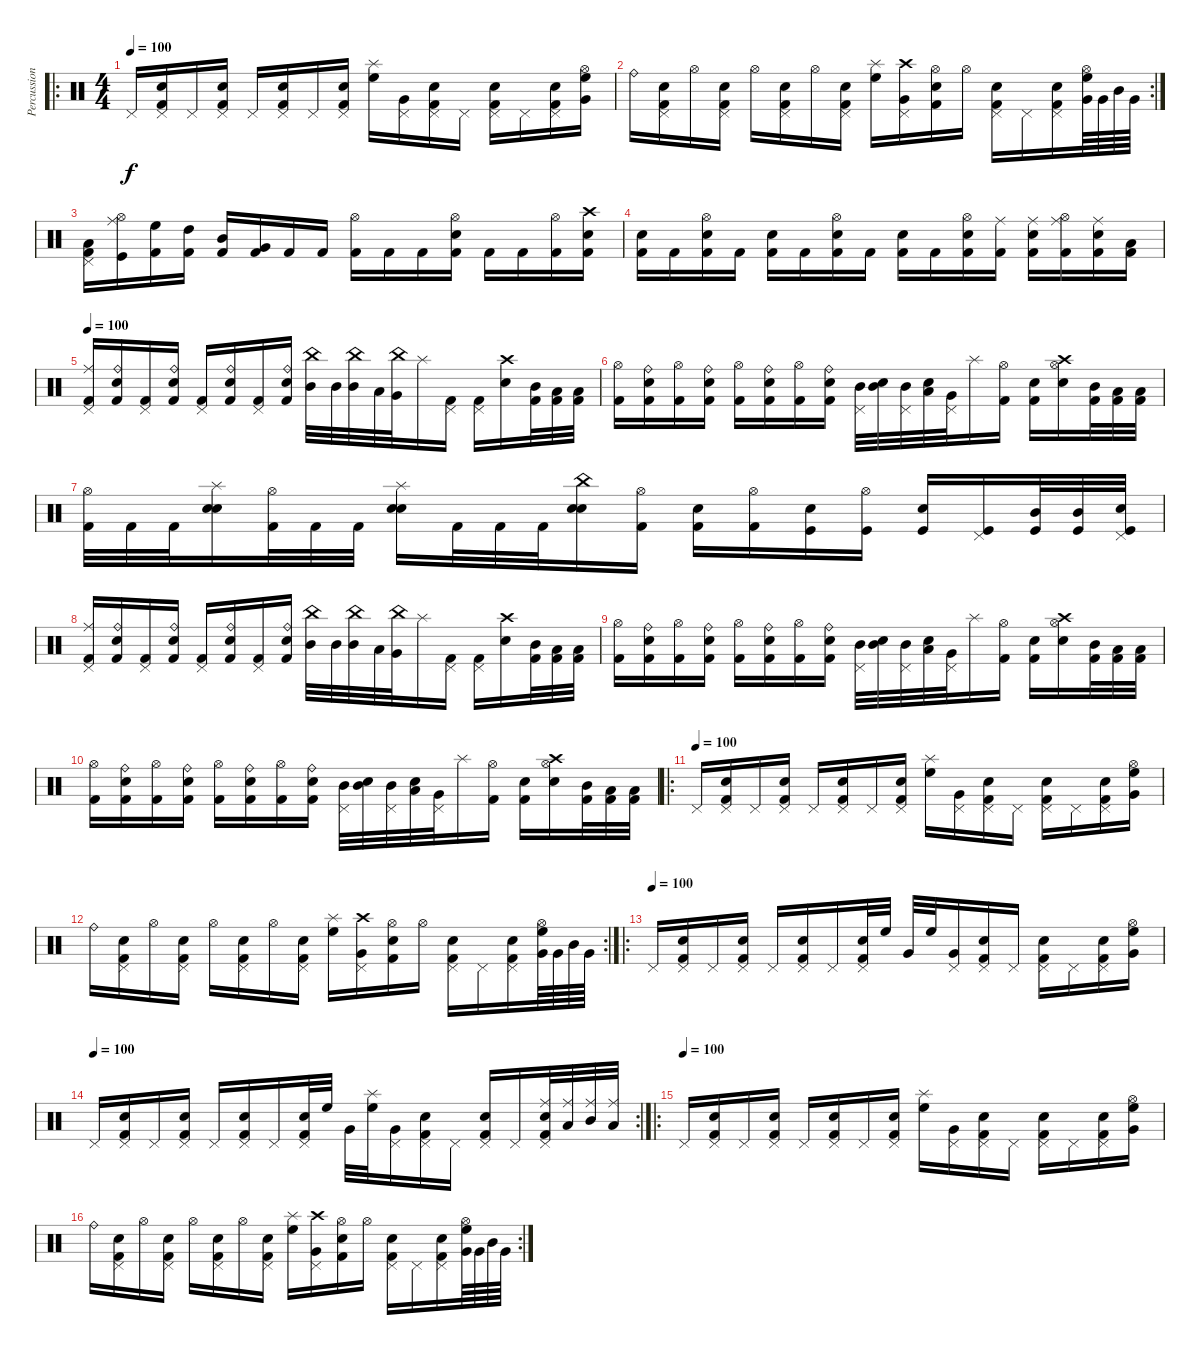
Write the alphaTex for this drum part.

\track ("Percussion" "Percussion") {instrument percussion}
\staff {score}
\articulation defaults
\ro
\ts (4 4)
\tempo 100
\clef neutral
\ks c "Pedal Hi-Hat (hit)".16{dy f}
("Electric Snare (hit)" "Pedal Hi-Hat (hit)" "Kick (hit) 2").16 "Pedal Hi-Hat (hit)".16 ("Snare (hit) 2" "Pedal Hi-Hat (hit)" "Kick (hit) 2").16 "Pedal Hi-Hat (hit)".16 ("Electric Snare (hit)" "Pedal Hi-Hat (hit)" "Kick (hit) 2").16 "Pedal Hi-Hat (hit)".16 ("Snare (hit) 2" "Pedal Hi-Hat (hit)" "Kick (hit) 2").16 ("Splash (hit)" "High Floor Tom (hit)").16 ("Pedal Hi-Hat (hit)" "Very Low Tom (hit)").16 ("Electric Snare (hit)" "Pedal Hi-Hat (hit)" "Kick (hit) 2").16 "Pedal Hi-Hat (hit)".16 ("Electric Snare (hit)" "Pedal Hi-Hat (hit)" "Kick (hit) 2").16 "Pedal Hi-Hat (hit)".16 ("Electric Snare (hit)" "Pedal Hi-Hat (hit)" "Kick (hit) 2").16 ("High Floor Tom (hit)" "Very Low Tom (hit)" "Hi-Hat (open)").16 |
\rc 2 "Ride (bell)".16
("Electric Snare (hit)" "Pedal Hi-Hat (hit)" "Kick (hit) 2").16 "Hi-Hat (open)".16 ("Snare (hit) 2" "Pedal Hi-Hat (hit)" "Kick (hit) 2").16 "Hi-Hat (open)".16 ("Electric Snare (hit)" "Pedal Hi-Hat (hit)" "Kick (hit) 2").16 "Hi-Hat (open)".16 ("Snare (hit) 2" "Pedal Hi-Hat (hit)" "Kick (hit) 2").16 ("Splash (hit)" "High Floor Tom (hit)").16 ("Crash high (hit)" "Pedal Hi-Hat (hit)" "Very Low Tom (hit)").16 ("Hi-Hat (open)" "Electric Snare (hit)" "Kick (hit) 2").16 "Hi-Hat (open)".16 ("Electric Snare (hit)" "Pedal Hi-Hat (hit)" "Kick (hit) 2").16 "Pedal Hi-Hat (hit)".16 ("Electric Snare (hit)" "Pedal Hi-Hat (hit)" "Kick (hit) 2").16 ("High Floor Tom (hit)" "Very Low Tom (hit)" "Hi-Hat (open)").64 "Very Low Tom (hit)".64 "Mid Tom (hit)".64 "Very Low Tom (hit)".64 |
("Pedal Hi-Hat (hit)" "Low Tom (hit)" "Kick (hit) 2").16 ("Hi-Hat (open)" "Ride (middle)" "Kick (hit)").16 ("High Floor Tom (hit)" "Kick (hit) 2").16 ("High Tom (hit)" "Kick (hit) 2").16 ("Mid Tom (hit)" "Kick (hit) 2").16 ("Very Low Tom (hit)" "Kick (hit) 2").16 "Kick (hit) 2".16 "Kick (hit) 2".16 ("Hi-Hat (open)" "Kick (hit) 2").16 "Kick (hit) 2".16 "Kick (hit) 2".16 ("Snare (hit) 2" "Hi-Hat (open)" "Kick (hit) 2").16 "Kick (hit) 2".16 "Kick (hit) 2".16 ("Hi-Hat (open)" "Kick (hit) 2").16 ("Electric Snare (hit)" "Crash high (hit)" "Kick (hit) 2").16 |
("Electric Snare (hit)" "Kick (hit) 2").16 "Kick (hit) 2".16 ("Hi-Hat (open)" "Snare (hit) 2" "Kick (hit) 2").16 "Kick (hit) 2".16 ("Electric Snare (hit)" "Kick (hit) 2").16 "Kick (hit) 2".16 ("Hi-Hat (open)" "Snare (hit) 2" "Kick (hit) 2").16 "Kick (hit) 2".16 ("Electric Snare (hit)" "Kick (hit) 2").16 "Kick (hit) 2".16 ("Hi-Hat (open)" "Snare (hit) 2" "Kick (hit) 2").16 ("Ride (middle)" "Kick (hit) 2").16 ("Ride (middle)" "Electric Snare (hit)" "Kick (hit) 2").16 ("Ride (middle)" "Hi-Hat (open)" "Kick (hit) 2").16 ("Ride (middle)" "Snare (hit) 2" "Kick (hit) 2").16 ("Low Tom (hit)" "Kick (hit) 2").16 |
\tempo 100
("Ride (middle)" "Pedal Hi-Hat (hit)" "Kick (hit) 2").16 ("Ride (bell)" "Snare (hit) 2" "Kick (hit) 2").16 ("Pedal Hi-Hat (hit)" "Kick (hit) 2").16 ("Ride (bell)" "Snare (hit) 2" "Kick (hit) 2").16 ("Pedal Hi-Hat (hit)" "Kick (hit) 2").16 ("Ride (bell)" "Snare (hit) 2" "Kick (hit) 2").16 ("Pedal Hi-Hat (hit)" "Kick (hit) 2").16 ("Ride (bell)" "Snare (hit) 2" "Kick (hit) 2").16 ("China (hit)" "Mid Tom (hit)").32 "Mid Tom (hit)".32 ("China (hit)" "Mid Tom (hit)").32 "Low Tom (hit)".32 ("China (hit)" "Very Low Tom (hit)").32 "Splash (hit)".16 ("Pedal Hi-Hat (hit)" "Kick (hit) 2").16 ("Pedal Hi-Hat (hit)" "Kick (hit) 2").16 ("Crash high (hit)" "Snare (hit) 2").16 ("Mid Tom (hit)" "Kick (hit) 2").32 ("Low Tom (hit)" "Kick (hit) 2").32 ("Low Tom (hit)" "Kick (hit) 2").32 |
("Hi-Hat (open)" "Kick (hit) 2").16 ("Ride (bell)" "Snare (hit) 2" "Kick (hit) 2").16 ("Hi-Hat (open)" "Kick (hit) 2").16 ("Ride (bell)" "Snare (hit) 2" "Kick (hit) 2").16 ("Hi-Hat (open)" "Kick (hit) 2").16 ("Ride (bell)" "Snare (hit) 2" "Kick (hit) 2").16 ("Hi-Hat (open)" "Kick (hit) 2").16 ("Ride (bell)" "Snare (hit) 2" "Kick (hit) 2").16 ("Pedal Hi-Hat (hit)" "Mid Tom (hit)").32 ("Electric Snare (hit)" "Mid Tom (hit)").32 ("Pedal Hi-Hat (hit)" "Mid Tom (hit)").32 ("Electric Snare (hit)" "Low Tom (hit)").32 ("Pedal Hi-Hat (hit)" "Very Low Tom (hit)").32 "Splash (hit)".16 ("Hi-Hat (open)" "Kick (hit) 2").16 ("Electric Snare (hit)" "Kick (hit) 2").16 ("Crash high (hit)" "Snare (hit) 2" "Hi-Hat (open)").16 ("Mid Tom (hit)" "Kick (hit) 2").32 ("Low Tom (hit)" "Kick (hit) 2").32 ("Low Tom (hit)" "Kick (hit) 2").32 |
("Hi-Hat (open)" "Kick (hit) 2").32 "Kick (hit) 2".32 "Kick (hit) 2".32 ("Snare (hit) 2" "Splash (hit)" "Electric Snare (hit)").16 ("Hi-Hat (open)" "Kick (hit) 2").32 "Kick (hit) 2".32 "Kick (hit) 2".32 ("Snare (hit) 2" "Electric Snare (hit)" "Splash (hit)").16 "Kick (hit) 2".32 "Kick (hit) 2".32 "Kick (hit) 2".32 ("China (hit)" "Snare (hit) 2" "Electric Snare (hit)").16 ("Hi-Hat (open)" "Kick (hit) 2").16 ("Snare (hit) 2" "Kick (hit) 2").16 ("Hi-Hat (open)" "Kick (hit) 2").16 ("Snare (hit) 2" "Kick (hit)").16 ("Hi-Hat (open)" "Kick (hit)").16 ("Electric Snare (hit)" "Kick (hit)").16 ("Pedal Hi-Hat (hit)" "Kick (hit)").16 ("Mid Tom (hit)" "Kick (hit)").32 ("Mid Tom (hit)" "Kick (hit)").32 ("Pedal Hi-Hat (hit)" "Electric Snare (hit)" "Kick (hit)").32 |
("Ride (middle)" "Pedal Hi-Hat (hit)" "Kick (hit) 2").16 ("Ride (bell)" "Snare (hit) 2" "Kick (hit) 2").16 ("Pedal Hi-Hat (hit)" "Kick (hit) 2").16 ("Ride (bell)" "Snare (hit) 2" "Kick (hit) 2").16 ("Pedal Hi-Hat (hit)" "Kick (hit) 2").16 ("Ride (bell)" "Snare (hit) 2" "Kick (hit) 2").16 ("Pedal Hi-Hat (hit)" "Kick (hit) 2").16 ("Ride (bell)" "Snare (hit) 2" "Kick (hit) 2").16 ("China (hit)" "Mid Tom (hit)").32 "Mid Tom (hit)".32 ("China (hit)" "Mid Tom (hit)").32 "Low Tom (hit)".32 ("China (hit)" "Very Low Tom (hit)").32 "Splash (hit)".16 ("Pedal Hi-Hat (hit)" "Kick (hit) 2").16 ("Pedal Hi-Hat (hit)" "Kick (hit) 2").16 ("Crash high (hit)" "Snare (hit) 2").16 ("Mid Tom (hit)" "Kick (hit) 2").32 ("Low Tom (hit)" "Kick (hit) 2").32 ("Low Tom (hit)" "Kick (hit) 2").32 |
("Hi-Hat (open)" "Kick (hit) 2").16 ("Ride (bell)" "Snare (hit) 2" "Kick (hit) 2").16 ("Hi-Hat (open)" "Kick (hit) 2").16 ("Ride (bell)" "Snare (hit) 2" "Kick (hit) 2").16 ("Hi-Hat (open)" "Kick (hit) 2").16 ("Ride (bell)" "Snare (hit) 2" "Kick (hit) 2").16 ("Hi-Hat (open)" "Kick (hit) 2").16 ("Ride (bell)" "Snare (hit) 2" "Kick (hit) 2").16 ("Pedal Hi-Hat (hit)" "Mid Tom (hit)").32 ("Electric Snare (hit)" "Mid Tom (hit)").32 ("Pedal Hi-Hat (hit)" "Mid Tom (hit)").32 ("Electric Snare (hit)" "Low Tom (hit)").32 ("Pedal Hi-Hat (hit)" "Very Low Tom (hit)").32 "Splash (hit)".16 ("Hi-Hat (open)" "Kick (hit) 2").16 ("Electric Snare (hit)" "Kick (hit) 2").16 ("Crash high (hit)" "Snare (hit) 2" "Hi-Hat (open)").16 ("Mid Tom (hit)" "Kick (hit) 2").32 ("Low Tom (hit)" "Kick (hit) 2").32 ("Low Tom (hit)" "Kick (hit) 2").32 |
("Hi-Hat (open)" "Kick (hit) 2").16 ("Ride (bell)" "Snare (hit) 2" "Kick (hit) 2").16 ("Hi-Hat (open)" "Kick (hit) 2").16 ("Ride (bell)" "Snare (hit) 2" "Kick (hit) 2").16 ("Hi-Hat (open)" "Kick (hit) 2").16 ("Ride (bell)" "Snare (hit) 2" "Kick (hit) 2").16 ("Hi-Hat (open)" "Kick (hit) 2").16 ("Ride (bell)" "Snare (hit) 2" "Kick (hit) 2").16 ("Pedal Hi-Hat (hit)" "Mid Tom (hit)").32 ("Electric Snare (hit)" "Mid Tom (hit)").32 ("Pedal Hi-Hat (hit)" "Mid Tom (hit)").32 ("Electric Snare (hit)" "Low Tom (hit)").32 ("Pedal Hi-Hat (hit)" "Very Low Tom (hit)").32 "Splash (hit)".16 ("Hi-Hat (open)" "Kick (hit) 2").16 ("Electric Snare (hit)" "Kick (hit) 2").16 ("Crash high (hit)" "Snare (hit) 2" "Hi-Hat (open)").16 ("Mid Tom (hit)" "Kick (hit) 2").32 ("Low Tom (hit)" "Kick (hit) 2").32 ("Low Tom (hit)" "Kick (hit) 2").32 |
\ro
\tempo (100)
"Pedal Hi-Hat (hit)".16 ("Electric Snare (hit)" "Pedal Hi-Hat (hit)" "Kick (hit) 2").16 "Pedal Hi-Hat (hit)".16 ("Snare (hit) 2" "Pedal Hi-Hat (hit)" "Kick (hit) 2").16 "Pedal Hi-Hat (hit)".16 ("Electric Snare (hit)" "Pedal Hi-Hat (hit)" "Kick (hit) 2").16 "Pedal Hi-Hat (hit)".16 ("Snare (hit) 2" "Pedal Hi-Hat (hit)" "Kick (hit) 2").16 ("Splash (hit)" "High Floor Tom (hit)").16 ("Pedal Hi-Hat (hit)" "Very Low Tom (hit)").16 ("Electric Snare (hit)" "Pedal Hi-Hat (hit)" "Kick (hit) 2").16 "Pedal Hi-Hat (hit)".16 ("Electric Snare (hit)" "Pedal Hi-Hat (hit)" "Kick (hit) 2").16 "Pedal Hi-Hat (hit)".16 ("Electric Snare (hit)" "Pedal Hi-Hat (hit)" "Kick (hit) 2").16 ("High Floor Tom (hit)" "Very Low Tom (hit)" "Hi-Hat (open)").16 |
\rc 2 "Ride (bell)".16
("Electric Snare (hit)" "Pedal Hi-Hat (hit)" "Kick (hit) 2").16 "Hi-Hat (open)".16 ("Snare (hit) 2" "Pedal Hi-Hat (hit)" "Kick (hit) 2").16 "Hi-Hat (open)".16 ("Electric Snare (hit)" "Pedal Hi-Hat (hit)" "Kick (hit) 2").16 "Hi-Hat (open)".16 ("Snare (hit) 2" "Pedal Hi-Hat (hit)" "Kick (hit) 2").16 ("Splash (hit)" "High Floor Tom (hit)").16 ("Crash high (hit)" "Pedal Hi-Hat (hit)" "Very Low Tom (hit)").16 ("Hi-Hat (open)" "Electric Snare (hit)" "Kick (hit) 2").16 "Hi-Hat (open)".16 ("Electric Snare (hit)" "Pedal Hi-Hat (hit)" "Kick (hit) 2").16 "Pedal Hi-Hat (hit)".16 ("Electric Snare (hit)" "Pedal Hi-Hat (hit)" "Kick (hit) 2").16 ("High Floor Tom (hit)" "Very Low Tom (hit)" "Hi-Hat (open)").64 "Very Low Tom (hit)".64 "Mid Tom (hit)".64 "Very Low Tom (hit)".64 |
\ro
\tempo (100)
"Pedal Hi-Hat (hit)".16 ("Electric Snare (hit)" "Pedal Hi-Hat (hit)" "Kick (hit) 2").16 "Pedal Hi-Hat (hit)".16 ("Snare (hit) 2" "Pedal Hi-Hat (hit)" "Kick (hit) 2").16 "Pedal Hi-Hat (hit)".16 ("Electric Snare (hit)" "Pedal Hi-Hat (hit)" "Kick (hit) 2").16 "Pedal Hi-Hat (hit)".16 ("Snare (hit) 2" "Pedal Hi-Hat (hit)" "Kick (hit) 2").32 "High Floor Tom (hit)".32 "Very Low Tom (hit)".32 "High Floor Tom (hit)".32 ("Pedal Hi-Hat (hit)" "Very Low Tom (hit)").16 ("Electric Snare (hit)" "Pedal Hi-Hat (hit)" "Kick (hit) 2").16 "Pedal Hi-Hat (hit)".16 ("Electric Snare (hit)" "Pedal Hi-Hat (hit)" "Kick (hit) 2").16 "Pedal Hi-Hat (hit)".16 ("Electric Snare (hit)" "Pedal Hi-Hat (hit)" "Kick (hit) 2").16 ("High Floor Tom (hit)" "Very Low Tom (hit)" "Hi-Hat (open)").16 |
\rc 2
\tempo (100)
"Pedal Hi-Hat (hit)".16 ("Electric Snare (hit)" "Pedal Hi-Hat (hit)" "Kick (hit) 2").16 "Pedal Hi-Hat (hit)".16 ("Snare (hit) 2" "Pedal Hi-Hat (hit)" "Kick (hit) 2").16 "Pedal Hi-Hat (hit)".16 ("Electric Snare (hit)" "Pedal Hi-Hat (hit)" "Kick (hit) 2").16 "Pedal Hi-Hat (hit)".16 ("Snare (hit) 2" "Pedal Hi-Hat (hit)" "Kick (hit) 2").32 "High Floor Tom (hit)".32 "Very Low Tom (hit)".32 ("Splash (hit)" "High Floor Tom (hit)").32 ("Pedal Hi-Hat (hit)" "Very Low Tom (hit)").16 ("Electric Snare (hit)" "Pedal Hi-Hat (hit)" "Kick (hit) 2").16 "Pedal Hi-Hat (hit)".16 ("Electric Snare (hit)" "Pedal Hi-Hat (hit)" "Kick (hit) 2").16 "Pedal Hi-Hat (hit)".16 ("Ride (middle)" "Electric Snare (hit)" "Pedal Hi-Hat (hit)" "Kick (hit) 2").32 ("Ride (middle)" "Low Tom (hit)").32 ("Ride (middle)" "Mid Tom (hit)").32 ("Ride (middle)" "Low Tom (hit)").32 |
\ro
\tempo (100)
"Pedal Hi-Hat (hit)".16 ("Electric Snare (hit)" "Pedal Hi-Hat (hit)" "Kick (hit) 2").16 "Pedal Hi-Hat (hit)".16 ("Snare (hit) 2" "Pedal Hi-Hat (hit)" "Kick (hit) 2").16 "Pedal Hi-Hat (hit)".16 ("Electric Snare (hit)" "Pedal Hi-Hat (hit)" "Kick (hit) 2").16 "Pedal Hi-Hat (hit)".16 ("Snare (hit) 2" "Pedal Hi-Hat (hit)" "Kick (hit) 2").16 ("Splash (hit)" "High Floor Tom (hit)").16 ("Pedal Hi-Hat (hit)" "Very Low Tom (hit)").16 ("Electric Snare (hit)" "Pedal Hi-Hat (hit)" "Kick (hit) 2").16 "Pedal Hi-Hat (hit)".16 ("Electric Snare (hit)" "Pedal Hi-Hat (hit)" "Kick (hit) 2").16 "Pedal Hi-Hat (hit)".16 ("Electric Snare (hit)" "Pedal Hi-Hat (hit)" "Kick (hit) 2").16 ("High Floor Tom (hit)" "Very Low Tom (hit)" "Hi-Hat (open)").16 |
\rc 2 "Ride (bell)".16
("Electric Snare (hit)" "Pedal Hi-Hat (hit)" "Kick (hit) 2").16 "Hi-Hat (open)".16 ("Snare (hit) 2" "Pedal Hi-Hat (hit)" "Kick (hit) 2").16 "Hi-Hat (open)".16 ("Electric Snare (hit)" "Pedal Hi-Hat (hit)" "Kick (hit) 2").16 "Hi-Hat (open)".16 ("Snare (hit) 2" "Pedal Hi-Hat (hit)" "Kick (hit) 2").16 ("Splash (hit)" "High Floor Tom (hit)").16 ("Crash high (hit)" "Pedal Hi-Hat (hit)" "Very Low Tom (hit)").16 ("Hi-Hat (open)" "Electric Snare (hit)" "Kick (hit) 2").16 "Hi-Hat (open)".16 ("Electric Snare (hit)" "Pedal Hi-Hat (hit)" "Kick (hit) 2").16 "Pedal Hi-Hat (hit)".16 ("Electric Snare (hit)" "Pedal Hi-Hat (hit)" "Kick (hit) 2").16 ("High Floor Tom (hit)" "Very Low Tom (hit)" "Hi-Hat (open)").64 "Very Low Tom (hit)".64 "Mid Tom (hit)".64 "Very Low Tom (hit)".64
